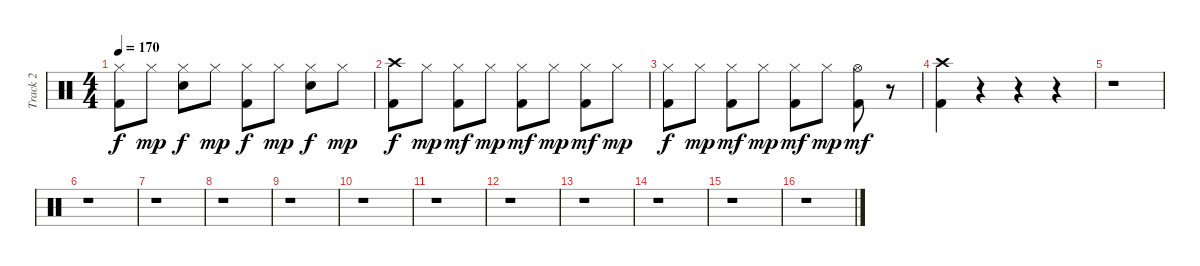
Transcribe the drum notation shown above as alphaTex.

\track ("Track 2" "Track 2") {instrument percussion}
\staff {score}
\articulation defaults
\ts (4 4)
\tempo 170
\clef neutral
\ks c
("Hi-Hat (closed)" "Kick (hit) 2").8{dy f} "Hi-Hat (closed)".8{dy mp} ("Hi-Hat (closed)" "Electric Snare (hit)").8{dy f} "Hi-Hat (closed)".8{dy mp} ("Hi-Hat (closed)" "Kick (hit) 2").8{dy f} "Hi-Hat (closed)".8{dy mp} ("Hi-Hat (closed)" "Electric Snare (hit)").8{dy f} "Hi-Hat (closed)".8{dy mp} |
("Crash high (hit)" "Kick (hit) 2").8{dy f} "Hi-Hat (closed)".8{dy mp} ("Hi-Hat (closed)" "Kick (hit) 2").8{dy mf} "Hi-Hat (closed)".8{dy mp} ("Hi-Hat (closed)" "Kick (hit) 2").8{dy mf} "Hi-Hat (closed)".8{dy mp} ("Hi-Hat (closed)" "Kick (hit) 2").8{dy mf} "Hi-Hat (closed)".8{dy mp} |
("Hi-Hat (closed)" "Kick (hit) 2").8{dy f} "Hi-Hat (closed)".8{dy mp} ("Hi-Hat (closed)" "Kick (hit) 2").8{dy mf} "Hi-Hat (closed)".8{dy mp} ("Hi-Hat (closed)" "Kick (hit) 2").8{dy mf} "Hi-Hat (closed)".8{dy mp} ("Hi-Hat (open)" "Kick (hit) 2").8{dy mf} r.8 |
("Crash high (hit)" "Kick (hit) 2").4 r.4 r.4 r.4 |
r.1 |
r.1 |
r.1 |
r.1 |
r.1 |
r.1 |
r.1 |
r.1 |
r.1 |
r.1 |
r.1 |
r.1
